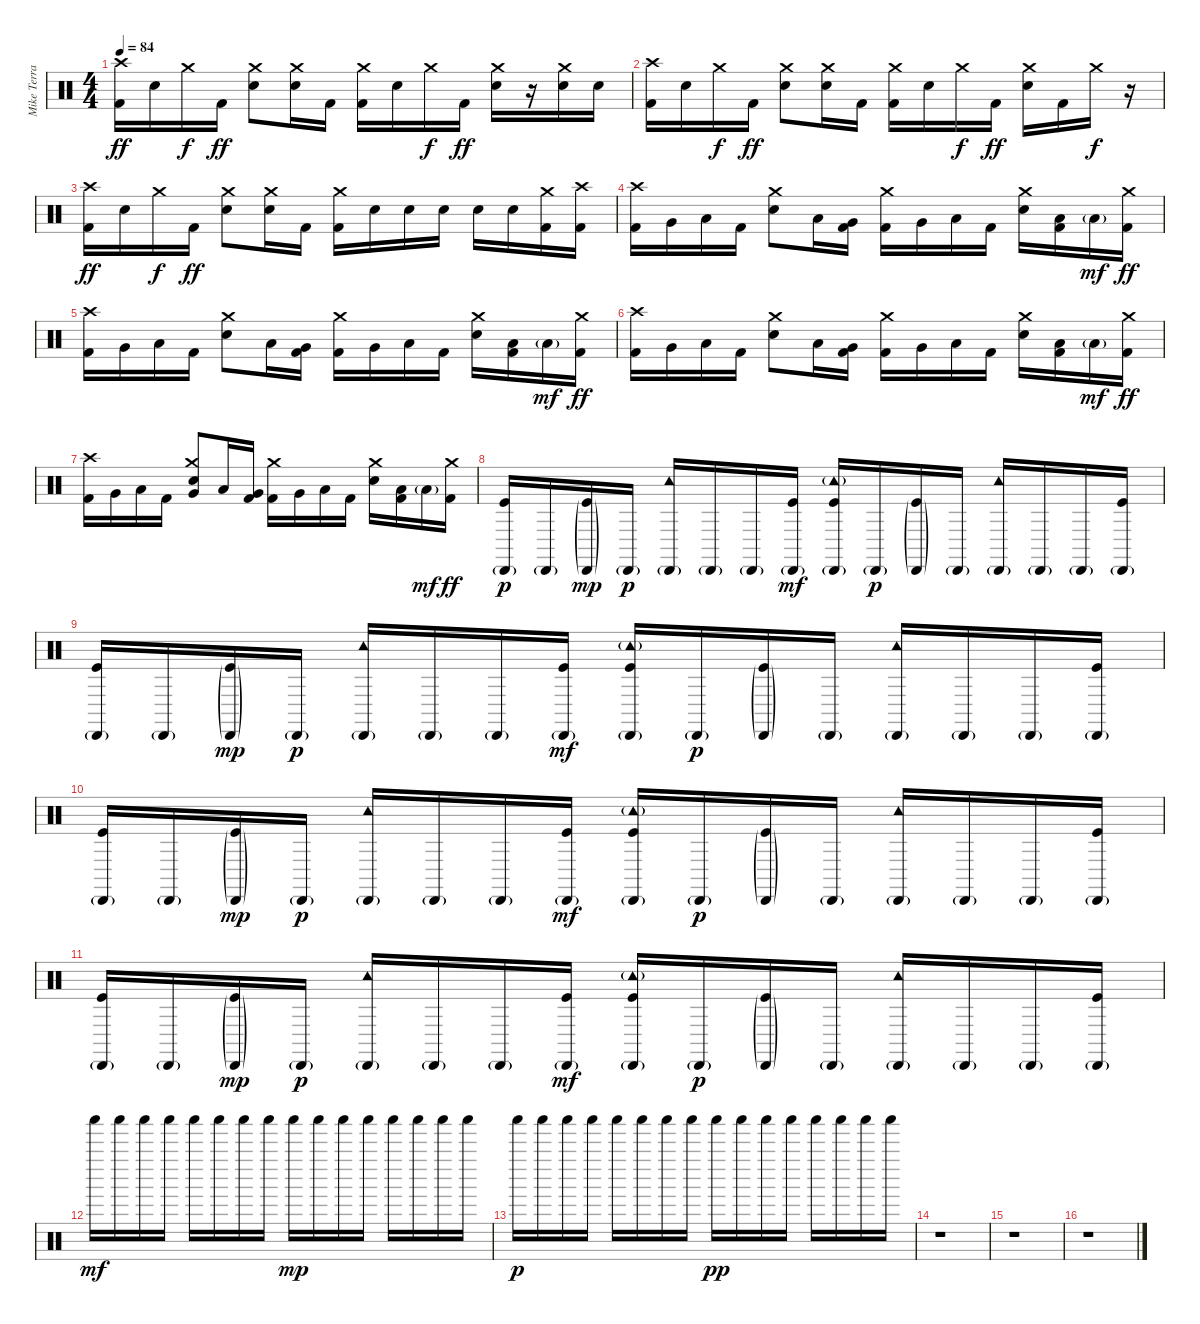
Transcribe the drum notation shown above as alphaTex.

\track ("Mike Terrana" "Mike Terra") {instrument percussion}
\staff {score}
\articulation defaults
\ts (4 4)
\tempo 84
\clef neutral
\ks c
("Crash high (hit)" "Kick (hit) 2").16{dy ff} "Snare (hit) 2".16 "Crash medium (hit)".16{dy f} "Kick (hit) 2".16{dy ff} ("Crash medium (hit)" "Snare (hit) 2").8 ("Crash medium (hit)" "Snare (hit) 2").16 "Kick (hit) 2".16 ("Crash medium (hit)" "Kick (hit) 2").16 "Snare (hit) 2".16 "Crash medium (hit)".16{dy f} "Kick (hit) 2".16{dy ff} ("Crash medium (hit)" "Snare (hit) 2").16 r.16 ("Crash medium (hit)" "Snare (hit) 2").16 "Snare (hit) 2".16 |
("Crash high (hit)" "Kick (hit) 2").16 "Snare (hit) 2".16 "Crash medium (hit)".16{dy f} "Kick (hit) 2".16{dy ff} ("Crash medium (hit)" "Snare (hit) 2").8 ("Crash medium (hit)" "Snare (hit) 2").16 "Kick (hit) 2".16 ("Crash medium (hit)" "Kick (hit) 2").16 "Snare (hit) 2".16 "Crash medium (hit)".16{dy f} "Kick (hit) 2".16{dy ff} ("Crash medium (hit)" "Snare (hit) 2").16 "Kick (hit) 2".16 "Crash medium (hit)".16{dy f} r.16 |
("Crash high (hit)" "Kick (hit) 2").16{dy ff} "Snare (hit) 2".16 "Crash medium (hit)".16{dy f} "Kick (hit) 2".16{dy ff} ("Crash medium (hit)" "Snare (hit) 2").8 ("Crash medium (hit)" "Snare (hit) 2").16 "Kick (hit) 2".16 ("Crash medium (hit)" "Kick (hit) 2").16 "Snare (hit) 2".16 "Snare (hit) 2".16 "Snare (hit) 2".16 "Snare (hit) 2".16 "Snare (hit) 2".16 ("Crash medium (hit)" "Kick (hit) 2").16 ("Crash high (hit)" "Kick (hit) 2").16 |
("Crash high (hit)" "Kick (hit) 2").16 "Very Low Tom (hit)".16 "Low Floor Tom (hit)".16 "Kick (hit) 2".16 ("Crash medium (hit)" "Snare (hit) 2").8 "Low Tom (hit)".16 ("Very Low Tom (hit)" "Kick (hit) 2").16 ("Crash medium (hit)" "Kick (hit) 2").16 "Very Low Tom (hit)".16 "Low Floor Tom (hit)".16 "Kick (hit) 2".16 ("Crash medium (hit)" "Snare (hit) 2").16 ("Low Floor Tom (hit)" "Kick (hit) 2").16 "Low Floor Tom (hit)"{g}.16{dy mf} ("Crash medium (hit)" "Kick (hit) 2").16{dy ff} |
("Crash high (hit)" "Kick (hit) 2").16 "Very Low Tom (hit)".16 "Low Floor Tom (hit)".16 "Kick (hit) 2".16 ("Crash medium (hit)" "Snare (hit) 2").8 "Low Tom (hit)".16 ("Very Low Tom (hit)" "Kick (hit) 2").16 ("Crash medium (hit)" "Kick (hit) 2").16 "Very Low Tom (hit)".16 "Low Floor Tom (hit)".16 "Kick (hit) 2".16 ("Crash medium (hit)" "Snare (hit) 2").16 ("Low Floor Tom (hit)" "Kick (hit) 2").16 "Low Floor Tom (hit)"{g}.16{dy mf} ("Crash medium (hit)" "Kick (hit) 2").16{dy ff} |
("Crash high (hit)" "Kick (hit) 2").16 "Very Low Tom (hit)".16 "Low Floor Tom (hit)".16 "Kick (hit) 2".16 ("Crash medium (hit)" "Snare (hit) 2").8 "Low Tom (hit)".16 ("Very Low Tom (hit)" "Kick (hit) 2").16 ("Crash medium (hit)" "Kick (hit) 2").16 "Very Low Tom (hit)".16 "Low Floor Tom (hit)".16 "Kick (hit) 2".16 ("Crash medium (hit)" "Snare (hit) 2").16 ("Low Floor Tom (hit)" "Kick (hit) 2").16 "Low Floor Tom (hit)"{g}.16{dy mf} ("Crash medium (hit)" "Kick (hit) 2").16{dy ff} |
("Crash high (hit)" "Kick (hit) 2").16 "Very Low Tom (hit)".16 "Low Floor Tom (hit)".16 "Kick (hit) 2".16 ("Crash medium (hit)" "Very Low Tom (hit)" "Snare (hit) 2").8 "Low Tom (hit)".16 ("Very Low Tom (hit)" "Kick (hit) 2").16 ("Crash medium (hit)" "Kick (hit) 2").16 "Very Low Tom (hit)".16 "Low Floor Tom (hit)".16 "Kick (hit) 2".16 ("Crash medium (hit)" "Snare (hit) 2").16 ("Low Floor Tom (hit)" "Kick (hit) 2").16 "Low Floor Tom (hit)"{g}.16{dy mf} ("Crash medium (hit)" "Kick (hit) 2").16{dy ff} |
("Cabasa (hit)"{g} "Kick (hit)").16{dy p} "Cabasa (hit)"{g}.16 ("Cabasa (hit)"{g} "Kick (hit)"{g}).16{dy mp} "Cabasa (hit)"{g}.16{dy p} ("Cabasa (hit)"{g} "Tambourine (hit)").16 "Cabasa (hit)"{g}.16 "Cabasa (hit)"{g}.16 ("Cabasa (hit)"{g} "Kick (hit)").16{dy mf} ("Cabasa (hit)"{g} "Tambourine (hit)"{g} "Kick (hit)").16 "Cabasa (hit)"{g}.16{dy p} ("Cabasa (hit)"{g} "Kick (hit)"{g}).16 "Cabasa (hit)"{g}.16 ("Cabasa (hit)"{g} "Tambourine (hit)").16 "Cabasa (hit)"{g}.16 "Cabasa (hit)"{g}.16 ("Cabasa (hit)"{g} "Kick (hit)").16 |
("Cabasa (hit)"{g} "Kick (hit)").16 "Cabasa (hit)"{g}.16 ("Cabasa (hit)"{g} "Kick (hit)"{g}).16{dy mp} "Cabasa (hit)"{g}.16{dy p} ("Cabasa (hit)"{g} "Tambourine (hit)").16 "Cabasa (hit)"{g}.16 "Cabasa (hit)"{g}.16 ("Cabasa (hit)"{g} "Kick (hit)").16{dy mf} ("Cabasa (hit)"{g} "Tambourine (hit)"{g} "Kick (hit)").16 "Cabasa (hit)"{g}.16{dy p} ("Cabasa (hit)"{g} "Kick (hit)"{g}).16 "Cabasa (hit)"{g}.16 ("Cabasa (hit)"{g} "Tambourine (hit)").16 "Cabasa (hit)"{g}.16 "Cabasa (hit)"{g}.16 ("Cabasa (hit)"{g} "Kick (hit)").16 |
("Cabasa (hit)"{g} "Kick (hit)").16 "Cabasa (hit)"{g}.16 ("Cabasa (hit)"{g} "Kick (hit)"{g}).16{dy mp} "Cabasa (hit)"{g}.16{dy p} ("Cabasa (hit)"{g} "Tambourine (hit)").16 "Cabasa (hit)"{g}.16 "Cabasa (hit)"{g}.16 ("Cabasa (hit)"{g} "Kick (hit)").16{dy mf} ("Cabasa (hit)"{g} "Tambourine (hit)"{g} "Kick (hit)").16 "Cabasa (hit)"{g}.16{dy p} ("Cabasa (hit)"{g} "Kick (hit)"{g}).16 "Cabasa (hit)"{g}.16 ("Cabasa (hit)"{g} "Tambourine (hit)").16 "Cabasa (hit)"{g}.16 "Cabasa (hit)"{g}.16 ("Cabasa (hit)"{g} "Kick (hit)").16 |
("Cabasa (hit)"{g} "Kick (hit)").16 "Cabasa (hit)"{g}.16 ("Cabasa (hit)"{g} "Kick (hit)"{g}).16{dy mp} "Cabasa (hit)"{g}.16{dy p} ("Cabasa (hit)"{g} "Tambourine (hit)").16 "Cabasa (hit)"{g}.16 "Cabasa (hit)"{g}.16 ("Cabasa (hit)"{g} "Kick (hit)").16{dy mf} ("Cabasa (hit)"{g} "Tambourine (hit)"{g} "Kick (hit)").16 "Cabasa (hit)"{g}.16{dy p} ("Cabasa (hit)"{g} "Kick (hit)"{g}).16 "Cabasa (hit)"{g}.16 ("Cabasa (hit)"{g} "Tambourine (hit)").16 "Cabasa (hit)"{g}.16 "Cabasa (hit)"{g}.16 ("Cabasa (hit)"{g} "Kick (hit)").16 |
"Shaker (hit)".16{dy mf} "Shaker (hit)".16 "Shaker (hit)".16 "Shaker (hit)".16 "Shaker (hit)".16 "Shaker (hit)".16 "Shaker (hit)".16 "Shaker (hit)".16 "Shaker (hit)".16{dy mp} "Shaker (hit)".16 "Shaker (hit)".16 "Shaker (hit)".16 "Shaker (hit)".16 "Shaker (hit)".16 "Shaker (hit)".16 "Shaker (hit)".16 |
"Shaker (hit)".16{dy p} "Shaker (hit)".16 "Shaker (hit)".16 "Shaker (hit)".16 "Shaker (hit)".16 "Shaker (hit)".16 "Shaker (hit)".16 "Shaker (hit)".16 "Shaker (hit)".16{dy pp} "Shaker (hit)".16 "Shaker (hit)".16 "Shaker (hit)".16 "Shaker (hit)".16 "Shaker (hit)".16 "Shaker (hit)".16 "Shaker (hit)".16 |
r.1 |
r.1 |
r.1
